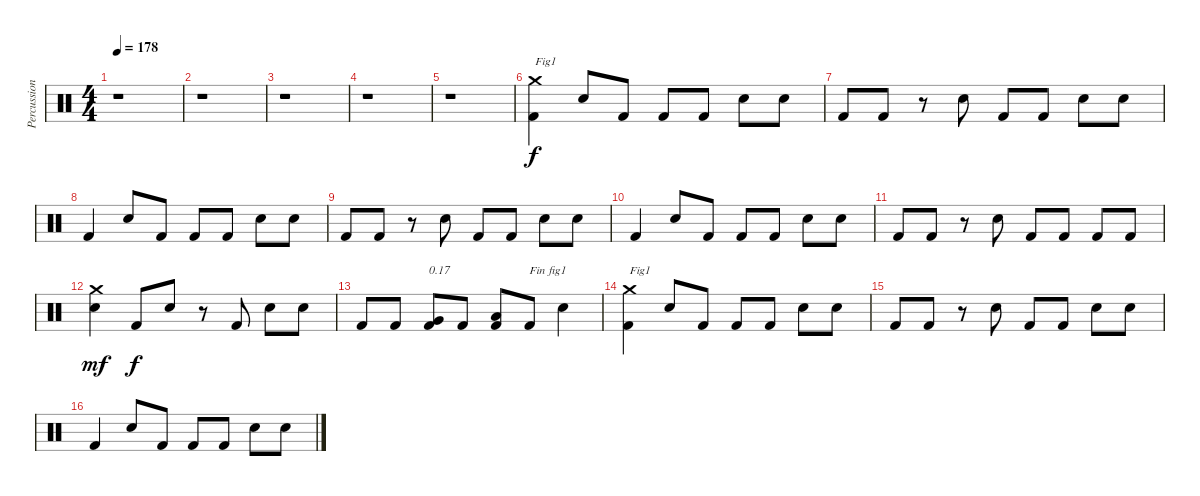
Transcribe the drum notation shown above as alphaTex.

\track ("Percussions" "Percussion") {instrument percussion}
\staff {score}
\articulation defaults
\ts (4 4)
\tempo 178
\clef neutral
\ks c
r.1{dy f} |
r.1 |
r.1 |
r.1 |
r.1 |
("Kick (hit) 2" "Crash medium (hit)").4{txt "Fig1"} "Electric Snare (hit)".8 "Kick (hit) 2".8 "Kick (hit) 2".8 "Kick (hit) 2".8 "Electric Snare (hit)".8 "Electric Snare (hit)".8 |
"Kick (hit) 2".8 "Kick (hit) 2".8 r.8 "Electric Snare (hit)".8 "Kick (hit) 2".8 "Kick (hit) 2".8 "Electric Snare (hit)".8 "Electric Snare (hit)".8 |
"Kick (hit) 2".4 "Electric Snare (hit)".8 "Kick (hit) 2".8 "Kick (hit) 2".8 "Kick (hit) 2".8 "Electric Snare (hit)".8 "Electric Snare (hit)".8 |
"Kick (hit) 2".8 "Kick (hit) 2".8 r.8 "Electric Snare (hit)".8 "Kick (hit) 2".8 "Kick (hit) 2".8 "Electric Snare (hit)".8 "Electric Snare (hit)".8 |
"Kick (hit) 2".4 "Electric Snare (hit)".8 "Kick (hit) 2".8 "Kick (hit) 2".8 "Kick (hit) 2".8 "Electric Snare (hit)".8 "Electric Snare (hit)".8 |
"Kick (hit) 2".8 "Kick (hit) 2".8 r.8 "Electric Snare (hit)".8 "Kick (hit) 2".8 "Kick (hit) 2".8 "Kick (hit) 2".8 "Kick (hit) 2".8 |
("Electric Snare (hit)" "Crash medium (hit)").4{dy mf} "Kick (hit) 2".8{dy f} "Electric Snare (hit)".8 r.8 "Kick (hit) 2".8 "Electric Snare (hit)".8 "Electric Snare (hit)".8 |
"Kick (hit) 2".8 "Kick (hit) 2".8 ("Kick (hit) 2" "Very Low Tom (hit)").8{txt "0.17"} "Kick (hit) 2".8 ("Kick (hit) 2" "Low Floor Tom (hit)").8 "Kick (hit) 2".8{txt "Fin fig1"} "Electric Snare (hit)".4 |
("Kick (hit) 2" "Crash medium (hit)").4{txt "Fig1"} "Electric Snare (hit)".8 "Kick (hit) 2".8 "Kick (hit) 2".8 "Kick (hit) 2".8 "Electric Snare (hit)".8 "Electric Snare (hit)".8 |
"Kick (hit) 2".8 "Kick (hit) 2".8 r.8 "Electric Snare (hit)".8 "Kick (hit) 2".8 "Kick (hit) 2".8 "Electric Snare (hit)".8 "Electric Snare (hit)".8 |
"Kick (hit) 2".4 "Electric Snare (hit)".8 "Kick (hit) 2".8 "Kick (hit) 2".8 "Kick (hit) 2".8 "Electric Snare (hit)".8 "Electric Snare (hit)".8
